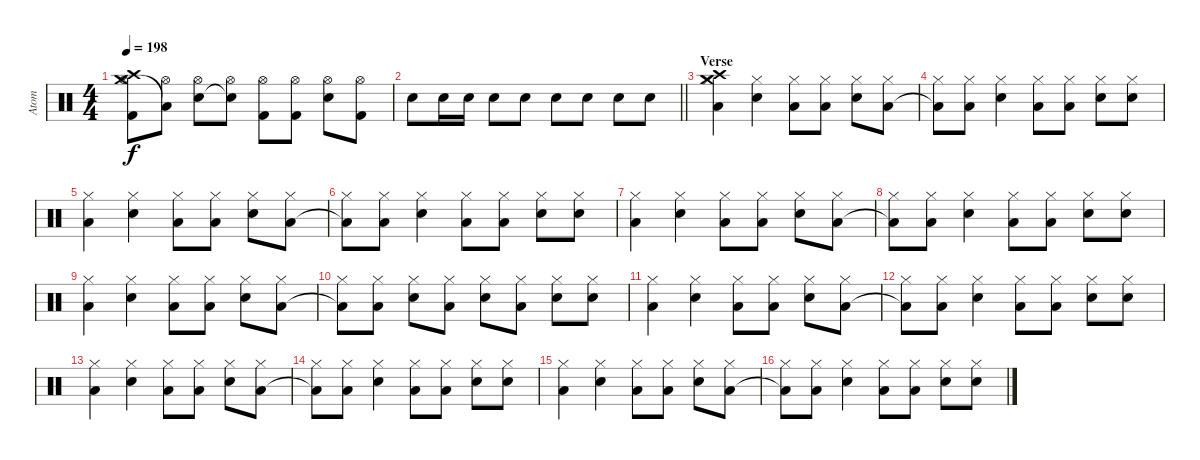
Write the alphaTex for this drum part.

\track ("Atom" "Atom") {instrument percussion}
\staff
\articulation defaults
\ts (4 4)
\tempo 198
\clef neutral
\ks c
("Crash medium (hit)" "Kick (hit) 2" "Hi-Hat (open)" "Crash high (hit)").8{dy f} ("Low Floor Tom (hit)"{t} "Hi-Hat (open)").8 ("Snare (hit) 2" "Hi-Hat (open)").8 ("Snare (hit) 2"{t} "Hi-Hat (open)").8 ("Kick (hit) 2" "Hi-Hat (open)").8 ("Kick (hit) 2" "Hi-Hat (open)").8 ("Snare (hit) 2" "Hi-Hat (open)").8 ("Kick (hit) 2" "Hi-Hat (open)").8 |
\barLineRight lightlight "Snare (hit) 2".8 "Snare (hit) 2".16 "Snare (hit) 2".16 "Snare (hit) 2".8 "Snare (hit) 2".8 "Snare (hit) 2".8 "Snare (hit) 2".8 "Snare (hit) 2".8 "Snare (hit) 2".8
|
\section ("" "Verse")
("Crash medium (hit)" "Low Floor Tom (hit)" "Hi-Hat (closed)" "Crash high (hit)").4 ("Snare (hit) 2" "Hi-Hat (closed)").4 ("Low Floor Tom (hit)" "Hi-Hat (closed)").8 ("Low Floor Tom (hit)" "Hi-Hat (closed)").8 ("Snare (hit) 2" "Hi-Hat (closed)").8 ("Low Floor Tom (hit)" "Hi-Hat (closed)").8 |
("Low Floor Tom (hit)"{t} "Hi-Hat (closed)").8 ("Low Floor Tom (hit)" "Hi-Hat (closed)").8 ("Snare (hit) 2" "Hi-Hat (closed)").4 ("Low Floor Tom (hit)" "Hi-Hat (closed)").8 ("Low Floor Tom (hit)" "Hi-Hat (closed)").8 ("Snare (hit) 2" "Hi-Hat (closed)").8 ("Snare (hit) 2" "Hi-Hat (closed)").8 |
("Low Floor Tom (hit)" "Hi-Hat (closed)").4 ("Snare (hit) 2" "Hi-Hat (closed)").4 ("Low Floor Tom (hit)" "Hi-Hat (closed)").8 ("Low Floor Tom (hit)" "Hi-Hat (closed)").8 ("Snare (hit) 2" "Hi-Hat (closed)").8 ("Low Floor Tom (hit)" "Hi-Hat (closed)").8 |
("Low Floor Tom (hit)"{t} "Hi-Hat (closed)").8 ("Low Floor Tom (hit)" "Hi-Hat (closed)").8 ("Snare (hit) 2" "Hi-Hat (closed)").4 ("Low Floor Tom (hit)" "Hi-Hat (closed)").8 ("Low Floor Tom (hit)" "Hi-Hat (closed)").8 ("Snare (hit) 2" "Hi-Hat (closed)").8 ("Snare (hit) 2" "Hi-Hat (closed)").8 |
("Low Floor Tom (hit)" "Hi-Hat (closed)").4 ("Snare (hit) 2" "Hi-Hat (closed)").4 ("Low Floor Tom (hit)" "Hi-Hat (closed)").8 ("Low Floor Tom (hit)" "Hi-Hat (closed)").8 ("Snare (hit) 2" "Hi-Hat (closed)").8 ("Low Floor Tom (hit)" "Hi-Hat (closed)").8 |
("Low Floor Tom (hit)"{t} "Hi-Hat (closed)").8 ("Low Floor Tom (hit)" "Hi-Hat (closed)").8 ("Snare (hit) 2" "Hi-Hat (closed)").4 ("Low Floor Tom (hit)" "Hi-Hat (closed)").8 ("Low Floor Tom (hit)" "Hi-Hat (closed)").8 ("Snare (hit) 2" "Hi-Hat (closed)").8 ("Snare (hit) 2" "Hi-Hat (closed)").8 |
("Low Floor Tom (hit)" "Hi-Hat (closed)").4 ("Snare (hit) 2" "Hi-Hat (closed)").4 ("Low Floor Tom (hit)" "Hi-Hat (closed)").8 ("Low Floor Tom (hit)" "Hi-Hat (closed)").8 ("Snare (hit) 2" "Hi-Hat (closed)").8 ("Low Floor Tom (hit)" "Hi-Hat (closed)").8 |
("Low Floor Tom (hit)"{t} "Hi-Hat (closed)").8 ("Low Floor Tom (hit)" "Hi-Hat (closed)").8 ("Snare (hit) 2" "Hi-Hat (closed)").8 ("Low Floor Tom (hit)" "Hi-Hat (closed)").8 ("Snare (hit) 2" "Hi-Hat (closed)").8 ("Low Floor Tom (hit)" "Hi-Hat (closed)").8 ("Snare (hit) 2" "Hi-Hat (closed)").8 ("Snare (hit) 2" "Hi-Hat (closed)").8 |
("Low Floor Tom (hit)" "Hi-Hat (closed)").4 ("Snare (hit) 2" "Hi-Hat (closed)").4 ("Low Floor Tom (hit)" "Hi-Hat (closed)").8 ("Low Floor Tom (hit)" "Hi-Hat (closed)").8 ("Snare (hit) 2" "Hi-Hat (closed)").8 ("Low Floor Tom (hit)" "Hi-Hat (closed)").8 |
("Low Floor Tom (hit)"{t} "Hi-Hat (closed)").8 ("Low Floor Tom (hit)" "Hi-Hat (closed)").8 ("Snare (hit) 2" "Hi-Hat (closed)").4 ("Low Floor Tom (hit)" "Hi-Hat (closed)").8 ("Low Floor Tom (hit)" "Hi-Hat (closed)").8 ("Snare (hit) 2" "Hi-Hat (closed)").8 ("Snare (hit) 2" "Hi-Hat (closed)").8 |
("Low Floor Tom (hit)" "Hi-Hat (closed)").4 ("Snare (hit) 2" "Hi-Hat (closed)").4 ("Low Floor Tom (hit)" "Hi-Hat (closed)").8 ("Low Floor Tom (hit)" "Hi-Hat (closed)").8 ("Snare (hit) 2" "Hi-Hat (closed)").8 ("Low Floor Tom (hit)" "Hi-Hat (closed)").8 |
("Low Floor Tom (hit)"{t} "Hi-Hat (closed)").8 ("Low Floor Tom (hit)" "Hi-Hat (closed)").8 ("Snare (hit) 2" "Hi-Hat (closed)").4 ("Low Floor Tom (hit)" "Hi-Hat (closed)").8 ("Low Floor Tom (hit)" "Hi-Hat (closed)").8 ("Snare (hit) 2" "Hi-Hat (closed)").8 ("Snare (hit) 2" "Hi-Hat (closed)").8 |
("Low Floor Tom (hit)" "Hi-Hat (closed)").4 ("Snare (hit) 2" "Hi-Hat (closed)").4 ("Low Floor Tom (hit)" "Hi-Hat (closed)").8 ("Low Floor Tom (hit)" "Hi-Hat (closed)").8 ("Snare (hit) 2" "Hi-Hat (closed)").8 ("Low Floor Tom (hit)" "Hi-Hat (closed)").8 |
("Low Floor Tom (hit)"{t} "Hi-Hat (closed)").8 ("Low Floor Tom (hit)" "Hi-Hat (closed)").8 ("Snare (hit) 2" "Hi-Hat (closed)").4 ("Low Floor Tom (hit)" "Hi-Hat (closed)").8 ("Low Floor Tom (hit)" "Hi-Hat (closed)").8 ("Snare (hit) 2" "Hi-Hat (closed)").8 ("Snare (hit) 2" "Hi-Hat (closed)").8
